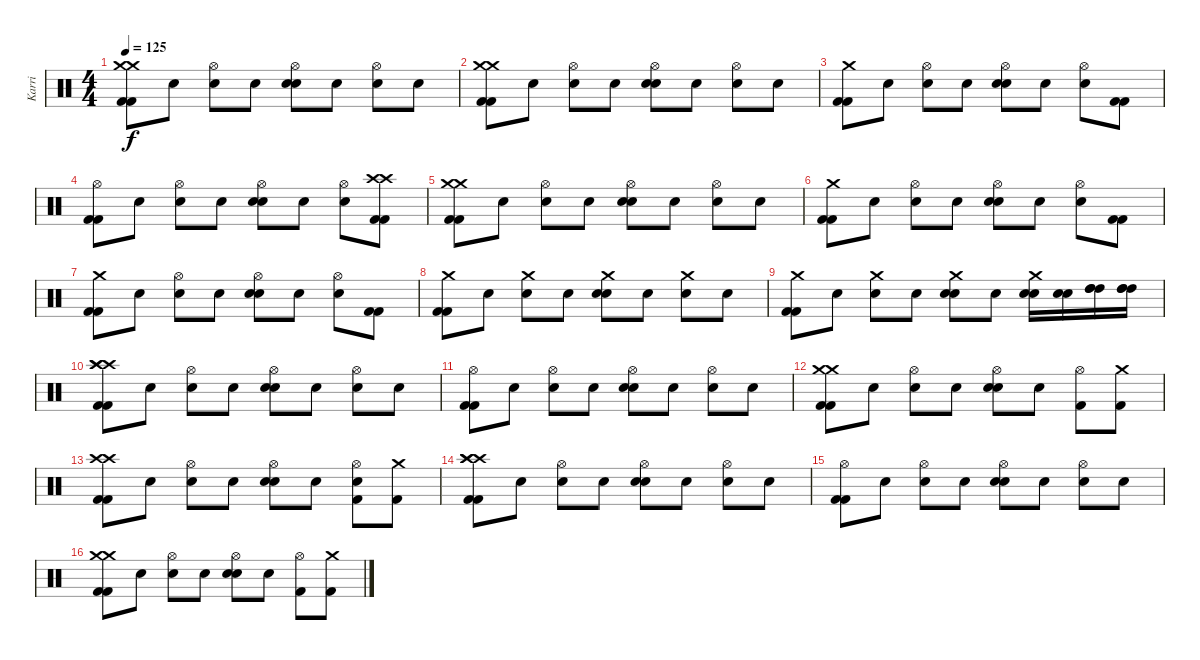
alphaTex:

\track ("Karri" "Karri") {instrument percussion}
\staff {score}
\articulation defaults
\ts (4 4)
\tempo 125
\clef neutral
\ks c
("Crash medium (hit)" "Crash medium (hit)" "Kick (hit) 2" "Kick (hit) 2").8{dy f} "Snare (hit)"{x}.8 ("Hi-Hat (open)" "Snare (hit)"{x}).8 "Snare (hit)"{x}.8 ("Hi-Hat (open)" "Snare (hit) 2" "Snare (hit) 2").8 "Snare (hit)"{x}.8 ("Hi-Hat (open)" "Snare (hit)"{x}).8 "Snare (hit)"{x}.8 |
("Crash medium (hit)" "Crash medium (hit)" "Kick (hit) 2" "Kick (hit) 2").8 "Snare (hit)"{x}.8 ("Hi-Hat (open)" "Snare (hit)"{x}).8 "Snare (hit)"{x}.8 ("Hi-Hat (open)" "Snare (hit) 2" "Snare (hit) 2").8 "Snare (hit)"{x}.8 ("Hi-Hat (open)" "Snare (hit)"{x}).8 "Snare (hit)"{x}.8 |
("Crash medium (hit)" "Kick (hit) 2" "Kick (hit) 2").8 "Snare (hit)"{x}.8 ("Hi-Hat (open)" "Snare (hit)"{x}).8 "Snare (hit)"{x}.8 ("Hi-Hat (open)" "Snare (hit) 2" "Snare (hit) 2").8 "Snare (hit)"{x}.8 ("Hi-Hat (open)" "Snare (hit)"{x}).8 ("Kick (hit) 2"{x} "Kick (hit) 2"{x}).8 |
("Hi-Hat (open)" "Kick (hit) 2" "Kick (hit) 2").8 "Snare (hit)"{x}.8 ("Hi-Hat (open)" "Snare (hit)"{x}).8 "Snare (hit)"{x}.8 ("Hi-Hat (open)" "Snare (hit) 2" "Snare (hit) 2").8 "Snare (hit)"{x}.8 ("Hi-Hat (open)" "Snare (hit)"{x}).8 ("Crash high (hit)" "Crash high (hit)" "Kick (hit) 2" "Kick (hit) 2").8 |
("Crash medium (hit)" "Crash medium (hit)" "Kick (hit) 2" "Kick (hit) 2").8 "Snare (hit)"{x}.8 ("Hi-Hat (open)" "Snare (hit)"{x}).8 "Snare (hit)"{x}.8 ("Hi-Hat (open)" "Snare (hit) 2" "Snare (hit) 2").8 "Snare (hit)"{x}.8 ("Hi-Hat (open)" "Snare (hit)"{x}).8 "Snare (hit)"{x}.8 |
("Crash medium (hit)" "Kick (hit) 2" "Kick (hit) 2").8 "Snare (hit)"{x}.8 ("Hi-Hat (open)" "Snare (hit)"{x}).8 "Snare (hit)"{x}.8 ("Hi-Hat (open)" "Snare (hit) 2" "Snare (hit) 2").8 "Snare (hit)"{x}.8 ("Hi-Hat (open)" "Snare (hit)"{x}).8 ("Kick (hit) 2"{x} "Kick (hit) 2"{x}).8 |
("Crash medium (hit)" "Kick (hit) 2" "Kick (hit) 2").8 "Snare (hit)"{x}.8 ("Hi-Hat (open)" "Snare (hit)"{x}).8 "Snare (hit)"{x}.8 ("Hi-Hat (open)" "Snare (hit) 2" "Snare (hit) 2").8 "Snare (hit)"{x}.8 ("Hi-Hat (open)" "Snare (hit)"{x}).8 ("Kick (hit) 2"{x} "Kick (hit) 2"{x}).8 |
("Crash medium (hit)" "Kick (hit) 2" "Kick (hit) 2").8 "Snare (hit)"{x}.8 ("Crash medium (hit)" "Snare (hit)"{x}).8 "Snare (hit)"{x}.8 ("Crash medium (hit)" "Snare (hit) 2" "Snare (hit) 2").8 "Snare (hit)"{x}.8 ("Crash medium (hit)" "Snare (hit)"{x}).8 "Snare (hit)"{x}.8 |
("Crash medium (hit)" "Kick (hit) 2" "Kick (hit) 2").8 "Snare (hit)"{x}.8 ("Crash medium (hit)" "Snare (hit)"{x}).8 "Snare (hit)"{x}.8 ("Crash medium (hit)" "Snare (hit) 2" "Snare (hit) 2").8 "Snare (hit)"{x}.8 ("Crash medium (hit)" "Snare (hit) 2" "Snare (hit) 2").16 ("Snare (hit) 2" "Snare (hit) 2").16 ("High Tom (hit)" "High Tom (hit)" "High Tom (hit)").16 ("High Tom (hit)" "High Tom (hit)" "High Tom (hit)").16 |
("Crash high (hit)" "Crash high (hit)" "Crash high (hit)" "Kick (hit) 2" "Kick (hit) 2").8 "Snare (hit)"{x}.8 ("Hi-Hat (open)" "Snare (hit)"{x}).8 "Snare (hit)"{x}.8 ("Hi-Hat (open)" "Snare (hit) 2" "Snare (hit) 2").8 "Snare (hit)"{x}.8 ("Hi-Hat (open)" "Snare (hit)"{x}).8 "Snare (hit)"{x}.8 |
("Hi-Hat (open)" "Kick (hit) 2" "Kick (hit) 2").8 "Snare (hit)"{x}.8 ("Hi-Hat (open)" "Snare (hit)"{x}).8 "Snare (hit)"{x}.8 ("Hi-Hat (open)" "Snare (hit) 2" "Snare (hit) 2").8 "Snare (hit)"{x}.8 ("Hi-Hat (open)" "Snare (hit)"{x}).8 "Snare (hit)"{x}.8 |
("Crash medium (hit)" "Crash medium (hit)" "Kick (hit) 2" "Kick (hit) 2").8 "Snare (hit)"{x}.8 ("Hi-Hat (open)" "Snare (hit)"{x}).8 "Snare (hit)"{x}.8 ("Hi-Hat (open)" "Snare (hit) 2" "Snare (hit) 2").8 "Snare (hit)"{x}.8 ("Hi-Hat (open)" "Kick (hit) 2"{x}).8 ("Crash medium (hit)" "Kick (hit) 2").8 |
("Crash high (hit)" "Crash high (hit)" "Kick (hit) 2" "Kick (hit) 2").8 "Snare (hit)"{x}.8 ("Hi-Hat (open)" "Snare (hit)"{x}).8 "Snare (hit)"{x}.8 ("Hi-Hat (open)" "Snare (hit) 2" "Snare (hit) 2").8 "Snare (hit)"{x}.8 ("Hi-Hat (open)" "Snare (hit)"{x} "Kick (hit) 2"{x}).8 ("Crash medium (hit)" "Kick (hit) 2").8 |
("Crash high (hit)" "Crash high (hit)" "Crash high (hit)" "Kick (hit) 2" "Kick (hit) 2").8 "Snare (hit)"{x}.8 ("Hi-Hat (open)" "Snare (hit)"{x}).8 "Snare (hit)"{x}.8 ("Hi-Hat (open)" "Snare (hit) 2" "Snare (hit) 2").8 "Snare (hit)"{x}.8 ("Hi-Hat (open)" "Snare (hit)"{x}).8 "Snare (hit)"{x}.8 |
("Hi-Hat (open)" "Kick (hit) 2" "Kick (hit) 2").8 "Snare (hit)"{x}.8 ("Hi-Hat (open)" "Snare (hit)"{x}).8 "Snare (hit)"{x}.8 ("Hi-Hat (open)" "Snare (hit) 2" "Snare (hit) 2").8 "Snare (hit)"{x}.8 ("Hi-Hat (open)" "Snare (hit)"{x}).8 "Snare (hit)"{x}.8 |
("Crash medium (hit)" "Crash medium (hit)" "Kick (hit) 2" "Kick (hit) 2").8 "Snare (hit)"{x}.8 ("Hi-Hat (open)" "Snare (hit)"{x}).8 "Snare (hit)"{x}.8 ("Hi-Hat (open)" "Snare (hit) 2" "Snare (hit) 2").8 "Snare (hit)"{x}.8 ("Hi-Hat (open)" "Kick (hit) 2"{x}).8 ("Crash medium (hit)" "Kick (hit) 2").8
